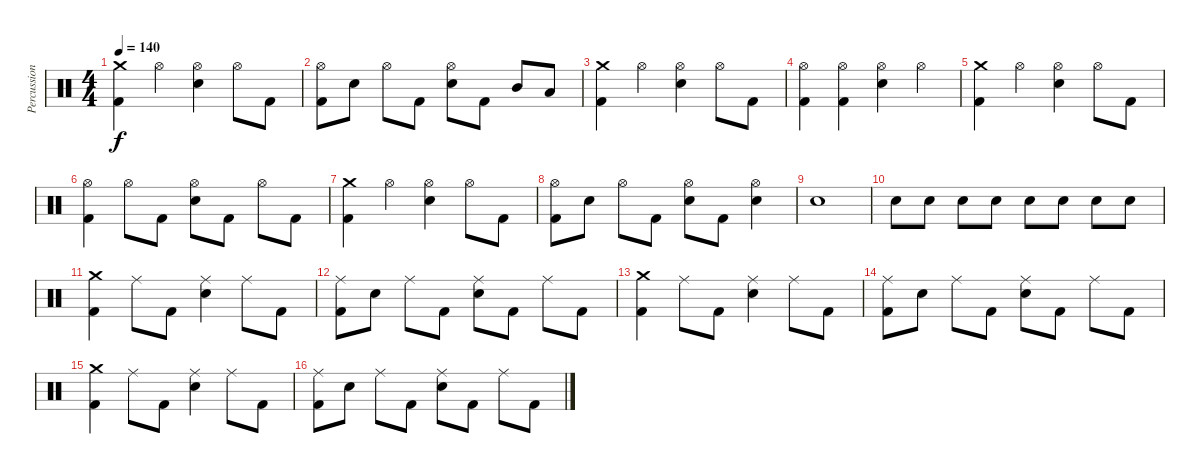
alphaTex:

\track ("Percussion" "Percussion") {instrument percussion}
\staff {score}
\articulation defaults
\ts (4 4)
\tempo 140
\clef neutral
\ks c
("Crash medium (hit)" "Kick (hit) 2").4{dy f} "Hi-Hat (open)".4 ("Hi-Hat (open)" "Snare (hit) 2").4 "Hi-Hat (open)".8 "Kick (hit) 2".8 |
("Hi-Hat (open)" "Kick (hit) 2").8 "Snare (hit) 2".8 "Hi-Hat (open)".8 "Kick (hit) 2".8 ("Hi-Hat (open)" "Snare (hit) 2").8 "Kick (hit) 2".8 "Mid Tom (hit)".8 "Low Tom (hit)".8 |
("Crash medium (hit)" "Kick (hit) 2").4 "Hi-Hat (open)".4 ("Hi-Hat (open)" "Snare (hit) 2").4 "Hi-Hat (open)".8 "Kick (hit) 2".8 |
("Hi-Hat (open)" "Kick (hit) 2").4 ("Hi-Hat (open)" "Kick (hit) 2").4 ("Hi-Hat (open)" "Snare (hit) 2").4 "Hi-Hat (open)".4 |
("Crash medium (hit)" "Kick (hit) 2").4 "Hi-Hat (open)".4 ("Hi-Hat (open)" "Snare (hit) 2").4 "Hi-Hat (open)".8 "Kick (hit) 2".8 |
("Hi-Hat (open)" "Kick (hit) 2").4 "Hi-Hat (open)".8 "Kick (hit) 2".8 ("Hi-Hat (open)" "Snare (hit) 2").8 "Kick (hit) 2".8 "Hi-Hat (open)".8 "Kick (hit) 2".8 |
("Crash medium (hit)" "Kick (hit) 2").4 "Hi-Hat (open)".4 ("Hi-Hat (open)" "Snare (hit) 2").4 "Hi-Hat (open)".8 "Kick (hit) 2".8 |
("Hi-Hat (open)" "Kick (hit) 2").8 "Snare (hit) 2".8 "Hi-Hat (open)".8 "Kick (hit) 2".8 ("Hi-Hat (open)" "Snare (hit) 2").8 "Kick (hit) 2".8 ("Hi-Hat (open)" "Snare (hit) 2").4 |
"Snare (hit) 2".1 |
"Snare (hit) 2".8 "Snare (hit) 2".8 "Snare (hit) 2".8 "Snare (hit) 2".8 "Snare (hit) 2".8 "Snare (hit) 2".8 "Snare (hit) 2".8 "Snare (hit) 2".8 |
("Crash medium (hit)" "Kick (hit) 2").4 "Ride (middle)".8 "Kick (hit) 2".8 ("Ride (middle)" "Snare (hit) 2").4 "Ride (middle)".8 "Kick (hit) 2".8 |
("Ride (middle)" "Kick (hit) 2").8 "Snare (hit) 2".8 "Ride (middle)".8 "Kick (hit) 2".8 ("Ride (middle)" "Snare (hit) 2").8 "Kick (hit) 2".8 "Ride (middle)".8 "Kick (hit) 2".8 |
("Crash medium (hit)" "Kick (hit) 2").4 "Ride (middle)".8 "Kick (hit) 2".8 ("Ride (middle)" "Snare (hit) 2").4 "Ride (middle)".8 "Kick (hit) 2".8 |
("Ride (middle)" "Kick (hit) 2").8 "Snare (hit) 2".8 "Ride (middle)".8 "Kick (hit) 2".8 ("Ride (middle)" "Snare (hit) 2").8 "Kick (hit) 2".8 "Ride (middle)".8 "Kick (hit) 2".8 |
("Crash medium (hit)" "Kick (hit) 2").4 "Ride (middle)".8 "Kick (hit) 2".8 ("Ride (middle)" "Snare (hit) 2").4 "Ride (middle)".8 "Kick (hit) 2".8 |
("Ride (middle)" "Kick (hit) 2").8 "Snare (hit) 2".8 "Ride (middle)".8 "Kick (hit) 2".8 ("Ride (middle)" "Snare (hit) 2").8 "Kick (hit) 2".8 "Ride (middle)".8 "Kick (hit) 2".8
